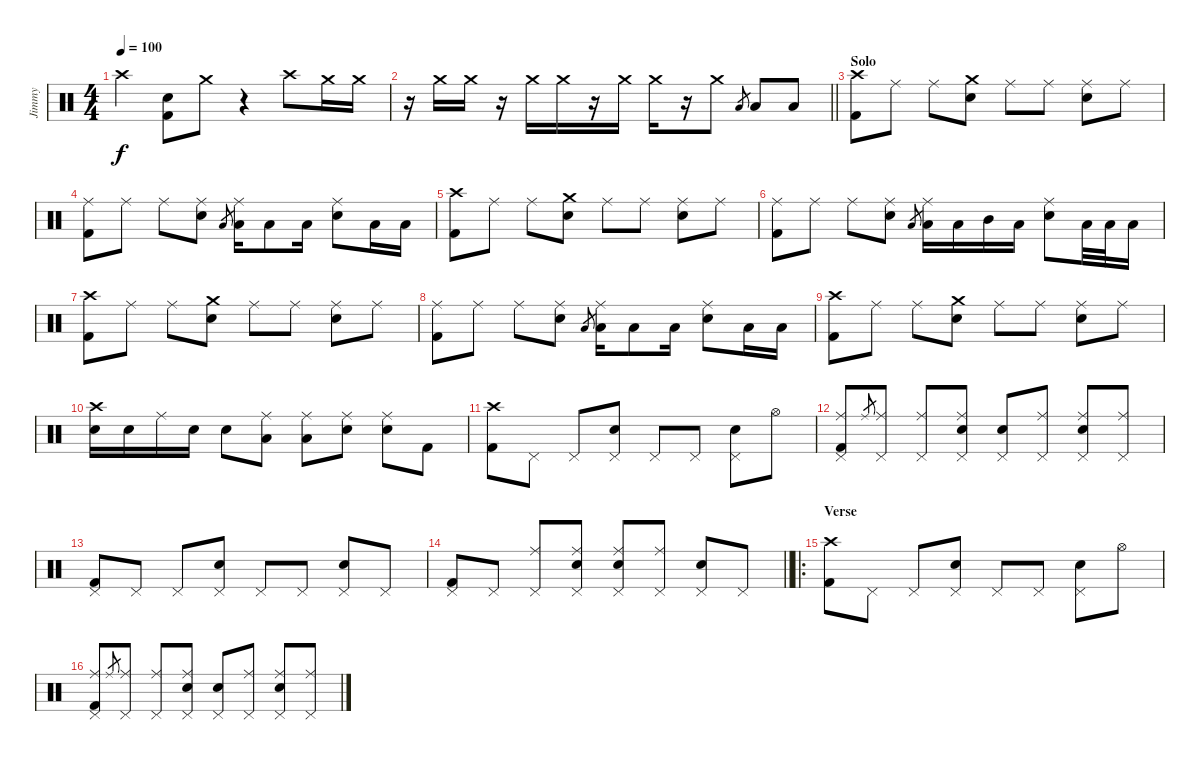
\track ("Jimmy" "Jimmy") {instrument percussion}
\staff {score}
\articulation defaults
\ts (4 4)
\tempo 100
\clef neutral
\ks c "Crash high (hit)".4{dy f}
("Snare (hit) 2" "Kick (hit) 2").8 "Crash medium (hit)".8 r.4 "Crash high (hit)".8 "Crash medium (hit)".16 "Crash medium (hit)".16 |
\barLineRight lightlight
r.16 "Crash medium (hit)".16 "Crash medium (hit)".16 r.16 "Crash medium (hit)".16 "Crash medium (hit)".16 r.16 "Crash medium (hit)".16 "Crash medium (hit)".16 r.16 "Crash medium (hit)".8 "Low Tom (hit)".8{gr} "Low Tom (hit)".8 "Low Floor Tom (hit)".8 |
\section ("" "Solo")
("Crash high (hit)" "Kick (hit) 2").8 "Ride (middle)".8 "Ride (middle)".8 ("Crash medium (hit)" "Snare (hit) 2").8 "Ride (middle)".8 "Ride (middle)".8 ("Ride (middle)" "Snare (hit) 2").8 "Ride (middle)".8 |
("Ride (middle)" "Kick (hit) 2").8 "Ride (middle)".8 "Ride (middle)".8 ("Ride (middle)" "Snare (hit) 2").8 "Low Tom (hit)".8{gr} ("Ride (middle)" "Low Tom (hit)").16 "Low Tom (hit)".8 "Low Tom (hit)".16 ("Ride (middle)" "Snare (hit) 2").8 "Low Floor Tom (hit)".16 "Low Floor Tom (hit)".16 |
("Crash high (hit)" "Kick (hit) 2").8 "Ride (middle)".8 "Ride (middle)".8 ("Crash medium (hit)" "Snare (hit) 2").8 "Ride (middle)".8 "Ride (middle)".8 ("Ride (middle)" "Snare (hit) 2").8 "Ride (middle)".8 |
("Ride (middle)" "Kick (hit) 2").8 "Ride (middle)".8 "Ride (middle)".8 ("Ride (middle)" "Snare (hit) 2").8 "Low Tom (hit)".8{gr} ("Ride (middle)" "Low Tom (hit)").16 "Low Tom (hit)".16 "Mid Tom (hit)".16 "Low Tom (hit)".16 ("Ride (middle)" "Snare (hit) 2").8 "Low Floor Tom (hit)".32 "Low Floor Tom (hit)".32 "Low Floor Tom (hit)".16 |
("Crash high (hit)" "Kick (hit) 2").8 "Ride (middle)".8 "Ride (middle)".8 ("Crash medium (hit)" "Snare (hit) 2").8 "Ride (middle)".8 "Ride (middle)".8 ("Ride (middle)" "Snare (hit) 2").8 "Ride (middle)".8 |
("Ride (middle)" "Kick (hit) 2").8 "Ride (middle)".8 "Ride (middle)".8 ("Ride (middle)" "Snare (hit) 2").8 "Low Tom (hit)".8{gr} ("Ride (middle)" "Low Tom (hit)").16 "Low Tom (hit)".8 "Low Tom (hit)".16 ("Ride (middle)" "Snare (hit) 2").8 "Low Floor Tom (hit)".16 "Low Floor Tom (hit)".16 |
("Crash high (hit)" "Kick (hit) 2").8 "Ride (middle)".8 "Ride (middle)".8 ("Crash medium (hit)" "Snare (hit) 2").8 "Ride (middle)".8 "Ride (middle)".8 ("Ride (middle)" "Snare (hit) 2").8 "Ride (middle)".8 |
("Crash high (hit)" "Snare (hit) 2").16 "Snare (hit) 2".16 "Ride (middle)".16 "Snare (hit) 2".16 "Snare (hit) 2".8 ("Ride (middle)" "Low Floor Tom (hit)").8 ("Ride (middle)" "Low Tom (hit)").8 ("Ride (middle)" "Snare (hit) 2").8 ("Ride (middle)" "Snare (hit) 2").8 "Kick (hit) 2".8 |
("Crash high (hit)" "Kick (hit) 2").8 "Pedal Hi-Hat (hit)".8 "Pedal Hi-Hat (hit)".8 ("Pedal Hi-Hat (hit)" "Snare (hit) 2").8 "Pedal Hi-Hat (hit)".8 "Pedal Hi-Hat (hit)".8 ("Pedal Hi-Hat (hit)" "Snare (hit) 2").8 "Hi-Hat (open)".8 |
("Ride (middle)" "Pedal Hi-Hat (hit)" "Kick (hit) 2").8 "Ride (middle)".8{gr} ("Ride (middle)" "Pedal Hi-Hat (hit)").8 ("Ride (middle)" "Pedal Hi-Hat (hit)").8 ("Ride (middle)" "Pedal Hi-Hat (hit)" "Snare (hit) 2").8 ("Pedal Hi-Hat (hit)" "Snare (hit) 2").8 ("Ride (middle)" "Pedal Hi-Hat (hit)").8 ("Ride (middle)" "Pedal Hi-Hat (hit)" "Snare (hit) 2").8 ("Ride (middle)" "Pedal Hi-Hat (hit)").8 |
("Pedal Hi-Hat (hit)" "Kick (hit) 2").8 "Pedal Hi-Hat (hit)".8 "Pedal Hi-Hat (hit)".8 ("Pedal Hi-Hat (hit)" "Snare (hit) 2").8 "Pedal Hi-Hat (hit)".8 "Pedal Hi-Hat (hit)".8 ("Pedal Hi-Hat (hit)" "Snare (hit) 2").8 "Pedal Hi-Hat (hit)".8 |
\barLineRight lightlight
("Pedal Hi-Hat (hit)" "Kick (hit) 2").8 "Pedal Hi-Hat (hit)".8 ("Ride (middle)" "Pedal Hi-Hat (hit)").8 ("Ride (middle)" "Pedal Hi-Hat (hit)" "Snare (hit) 2").8 ("Ride (middle)" "Pedal Hi-Hat (hit)" "Snare (hit) 2").8 ("Ride (middle)" "Pedal Hi-Hat (hit)").8 ("Pedal Hi-Hat (hit)" "Snare (hit) 2").8 "Pedal Hi-Hat (hit)".8 |
\ro
\section ("" "Verse")
("Crash high (hit)" "Kick (hit) 2").8 "Pedal Hi-Hat (hit)".8 "Pedal Hi-Hat (hit)".8 ("Pedal Hi-Hat (hit)" "Snare (hit) 2").8 "Pedal Hi-Hat (hit)".8 "Pedal Hi-Hat (hit)".8 ("Pedal Hi-Hat (hit)" "Snare (hit) 2").8 "Hi-Hat (open)".8 |
("Ride (middle)" "Pedal Hi-Hat (hit)" "Kick (hit) 2").8 "Ride (middle)".8{gr} ("Ride (middle)" "Pedal Hi-Hat (hit)").8 ("Ride (middle)" "Pedal Hi-Hat (hit)").8 ("Ride (middle)" "Pedal Hi-Hat (hit)" "Snare (hit) 2").8 ("Pedal Hi-Hat (hit)" "Snare (hit) 2").8 ("Ride (middle)" "Pedal Hi-Hat (hit)").8 ("Ride (middle)" "Pedal Hi-Hat (hit)" "Snare (hit) 2").8 ("Ride (middle)" "Pedal Hi-Hat (hit)").8
